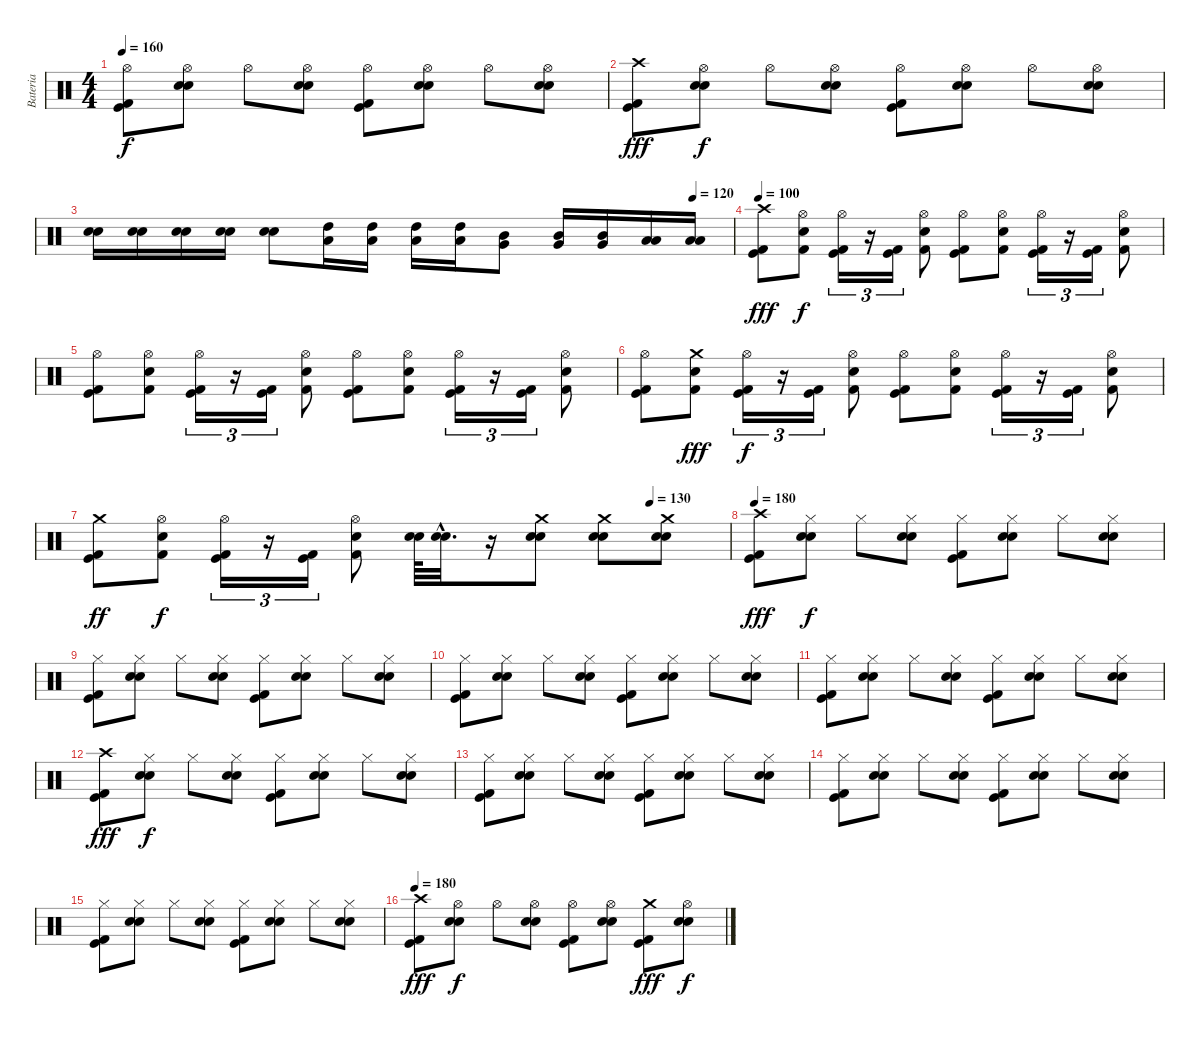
\track ("Bateria" "Bateria") {instrument percussion}
\staff {score}
\articulation defaults
\ts (4 4)
\tempo 160
\clef neutral
\ks c
("Hi-Hat (open)" "Kick (hit) 2" "Kick (hit)").8{dy f} ("Hi-Hat (open)" "Electric Snare (hit)" "Snare (hit) 2").8 "Hi-Hat (open)".8 ("Hi-Hat (open)" "Electric Snare (hit)" "Snare (hit) 2").8 ("Hi-Hat (open)" "Kick (hit) 2" "Kick (hit)").8 ("Hi-Hat (open)" "Electric Snare (hit)" "Snare (hit) 2").8 "Hi-Hat (open)".8 ("Hi-Hat (open)" "Electric Snare (hit)" "Snare (hit) 2").8 |
("Crash high (hit)" "Kick (hit) 2" "Kick (hit)").8{dy fff} ("Hi-Hat (open)" "Electric Snare (hit)" "Snare (hit) 2").8{dy f} "Hi-Hat (open)".8 ("Hi-Hat (open)" "Electric Snare (hit)" "Snare (hit) 2").8 ("Hi-Hat (open)" "Kick (hit) 2" "Kick (hit)").8 ("Hi-Hat (open)" "Electric Snare (hit)" "Snare (hit) 2").8 "Hi-Hat (open)".8 ("Hi-Hat (open)" "Electric Snare (hit)" "Snare (hit) 2").8 |
\tempo (120 0.9375)
("Electric Snare (hit)" "Snare (hit) 2").16 ("Electric Snare (hit)" "Snare (hit) 2").16 ("Electric Snare (hit)" "Snare (hit) 2").16 ("Electric Snare (hit)" "Snare (hit) 2").16 ("Electric Snare (hit)" "Snare (hit) 2").8 ("High Tom (hit)" "Low Tom (hit)").16 ("High Tom (hit)" "Low Tom (hit)").16 ("High Tom (hit)" "Low Tom (hit)").16 ("High Tom (hit)" "Low Tom (hit)").16 ("Mid Tom (hit)" "Very Low Tom (hit)").8 ("Mid Tom (hit)" "Very Low Tom (hit)").16 ("Mid Tom (hit)" "Very Low Tom (hit)").16 ("Low Tom (hit)" "Low Floor Tom (hit)").16 ("Low Tom (hit)" "Low Floor Tom (hit)").16 |
\tempo 100
("Crash high (hit)" "Kick (hit) 2" "Kick (hit)").8{dy fff} ("Hi-Hat (open)" "Electric Snare (hit)" "Kick (hit) 2").8{dy f} ("Hi-Hat (open)" "Kick (hit) 2" "Kick (hit)").16{tu (3 2)} r.16{tu (3 2)} ("Kick (hit) 2" "Kick (hit)").16{tu (3 2)} ("Hi-Hat (open)" "Electric Snare (hit)" "Kick (hit) 2").8 ("Hi-Hat (open)" "Kick (hit) 2" "Kick (hit)").8 ("Hi-Hat (open)" "Electric Snare (hit)" "Kick (hit) 2").8 ("Hi-Hat (open)" "Kick (hit) 2" "Kick (hit)").16{tu (3 2)} r.16{tu (3 2)} ("Kick (hit) 2" "Kick (hit)").16{tu (3 2)} ("Hi-Hat (open)" "Electric Snare (hit)" "Kick (hit) 2").8 |
("Hi-Hat (open)" "Kick (hit) 2" "Kick (hit)").8 ("Hi-Hat (open)" "Electric Snare (hit)" "Kick (hit) 2").8 ("Hi-Hat (open)" "Kick (hit) 2" "Kick (hit)").16{tu (3 2)} r.16{tu (3 2)} ("Kick (hit) 2" "Kick (hit)").16{tu (3 2)} ("Hi-Hat (open)" "Electric Snare (hit)" "Kick (hit) 2").8 ("Hi-Hat (open)" "Kick (hit) 2" "Kick (hit)").8 ("Hi-Hat (open)" "Electric Snare (hit)" "Kick (hit) 2").8 ("Hi-Hat (open)" "Kick (hit) 2" "Kick (hit)").16{tu (3 2)} r.16{tu (3 2)} ("Kick (hit) 2" "Kick (hit)").16{tu (3 2)} ("Hi-Hat (open)" "Electric Snare (hit)" "Kick (hit) 2").8 |
("Hi-Hat (open)" "Kick (hit) 2" "Kick (hit)").8 ("Crash medium (hit)" "Electric Snare (hit)" "Kick (hit) 2").8{dy fff} ("Hi-Hat (open)" "Kick (hit) 2" "Kick (hit)").16{tu (3 2) dy f} r.16{tu (3 2)} ("Kick (hit) 2" "Kick (hit)").16{tu (3 2)} ("Hi-Hat (open)" "Electric Snare (hit)" "Kick (hit) 2").8 ("Hi-Hat (open)" "Kick (hit) 2" "Kick (hit)").8 ("Hi-Hat (open)" "Electric Snare (hit)" "Kick (hit) 2").8 ("Hi-Hat (open)" "Kick (hit) 2" "Kick (hit)").16{tu (3 2)} r.16{tu (3 2)} ("Kick (hit) 2" "Kick (hit)").16{tu (3 2)} ("Hi-Hat (open)" "Electric Snare (hit)" "Kick (hit) 2").8 |
\tempo (130 0.875)
("Crash medium (hit)" "Kick (hit) 2" "Kick (hit)").8{dy ff} ("Hi-Hat (open)" "Electric Snare (hit)" "Kick (hit) 2").8{dy f} ("Hi-Hat (open)" "Kick (hit) 2" "Kick (hit)").16{tu (3 2)} r.16{tu (3 2)} ("Kick (hit) 2" "Kick (hit)").16{tu (3 2)} ("Hi-Hat (open)" "Electric Snare (hit)" "Kick (hit) 2").8 ("Electric Snare (hit)" "Snare (hit) 2").64 ("Electric Snare (hit)"{hac} "Snare (hit) 2"{hac}).32{d} r.16 ("Crash medium (hit)" "Electric Snare (hit)" "Snare (hit) 2").8 ("Crash medium (hit)" "Electric Snare (hit)" "Snare (hit) 2").8 ("Crash medium (hit)" "Electric Snare (hit)" "Snare (hit) 2").8 |
\tempo 180
("Crash high (hit)" "Kick (hit) 2" "Kick (hit)").8{dy fff} ("Hi-Hat (closed)" "Electric Snare (hit)" "Snare (hit) 2").8{dy f} "Hi-Hat (closed)".8 ("Hi-Hat (closed)" "Electric Snare (hit)" "Snare (hit) 2").8 ("Hi-Hat (closed)" "Kick (hit) 2" "Kick (hit)").8 ("Hi-Hat (closed)" "Electric Snare (hit)" "Snare (hit) 2").8 "Hi-Hat (closed)".8 ("Hi-Hat (closed)" "Electric Snare (hit)" "Snare (hit) 2").8 |
("Hi-Hat (closed)" "Kick (hit) 2" "Kick (hit)").8 ("Hi-Hat (closed)" "Electric Snare (hit)" "Snare (hit) 2").8 "Hi-Hat (closed)".8 ("Hi-Hat (closed)" "Electric Snare (hit)" "Snare (hit) 2").8 ("Hi-Hat (closed)" "Kick (hit) 2" "Kick (hit)").8 ("Hi-Hat (closed)" "Electric Snare (hit)" "Snare (hit) 2").8 "Hi-Hat (closed)".8 ("Hi-Hat (closed)" "Electric Snare (hit)" "Snare (hit) 2").8 |
("Hi-Hat (closed)" "Kick (hit) 2" "Kick (hit)").8 ("Hi-Hat (closed)" "Electric Snare (hit)" "Snare (hit) 2").8 "Hi-Hat (closed)".8 ("Hi-Hat (closed)" "Electric Snare (hit)" "Snare (hit) 2").8 ("Hi-Hat (closed)" "Kick (hit) 2" "Kick (hit)").8 ("Hi-Hat (closed)" "Electric Snare (hit)" "Snare (hit) 2").8 "Hi-Hat (closed)".8 ("Hi-Hat (closed)" "Electric Snare (hit)" "Snare (hit) 2").8 |
("Hi-Hat (closed)" "Kick (hit) 2" "Kick (hit)").8 ("Hi-Hat (closed)" "Electric Snare (hit)" "Snare (hit) 2").8 "Hi-Hat (closed)".8 ("Hi-Hat (closed)" "Electric Snare (hit)" "Snare (hit) 2").8 ("Hi-Hat (closed)" "Kick (hit) 2" "Kick (hit)").8 ("Hi-Hat (closed)" "Electric Snare (hit)" "Snare (hit) 2").8 "Hi-Hat (closed)".8 ("Hi-Hat (closed)" "Electric Snare (hit)" "Snare (hit) 2").8 |
("Crash high (hit)" "Kick (hit) 2" "Kick (hit)").8{dy fff} ("Hi-Hat (closed)" "Electric Snare (hit)" "Snare (hit) 2").8{dy f} "Hi-Hat (closed)".8 ("Hi-Hat (closed)" "Electric Snare (hit)" "Snare (hit) 2").8 ("Hi-Hat (closed)" "Kick (hit) 2" "Kick (hit)").8 ("Hi-Hat (closed)" "Electric Snare (hit)" "Snare (hit) 2").8 "Hi-Hat (closed)".8 ("Hi-Hat (closed)" "Electric Snare (hit)" "Snare (hit) 2").8 |
("Hi-Hat (closed)" "Kick (hit) 2" "Kick (hit)").8 ("Hi-Hat (closed)" "Electric Snare (hit)" "Snare (hit) 2").8 "Hi-Hat (closed)".8 ("Hi-Hat (closed)" "Electric Snare (hit)" "Snare (hit) 2").8 ("Hi-Hat (closed)" "Kick (hit) 2" "Kick (hit)").8 ("Hi-Hat (closed)" "Electric Snare (hit)" "Snare (hit) 2").8 "Hi-Hat (closed)".8 ("Hi-Hat (closed)" "Electric Snare (hit)" "Snare (hit) 2").8 |
("Hi-Hat (closed)" "Kick (hit) 2" "Kick (hit)").8 ("Hi-Hat (closed)" "Electric Snare (hit)" "Snare (hit) 2").8 "Hi-Hat (closed)".8 ("Hi-Hat (closed)" "Electric Snare (hit)" "Snare (hit) 2").8 ("Hi-Hat (closed)" "Kick (hit) 2" "Kick (hit)").8 ("Hi-Hat (closed)" "Electric Snare (hit)" "Snare (hit) 2").8 "Hi-Hat (closed)".8 ("Hi-Hat (closed)" "Electric Snare (hit)" "Snare (hit) 2").8 |
("Hi-Hat (closed)" "Kick (hit) 2" "Kick (hit)").8 ("Hi-Hat (closed)" "Electric Snare (hit)" "Snare (hit) 2").8 "Hi-Hat (closed)".8 ("Hi-Hat (closed)" "Electric Snare (hit)" "Snare (hit) 2").8 ("Hi-Hat (closed)" "Kick (hit) 2" "Kick (hit)").8 ("Hi-Hat (closed)" "Electric Snare (hit)" "Snare (hit) 2").8 "Hi-Hat (closed)".8 ("Hi-Hat (closed)" "Electric Snare (hit)" "Snare (hit) 2").8 |
\tempo 180
("Crash high (hit)" "Kick (hit) 2" "Kick (hit)").8{dy fff} ("Hi-Hat (open)" "Electric Snare (hit)" "Snare (hit) 2").8{dy f} "Hi-Hat (open)".8 ("Hi-Hat (open)" "Electric Snare (hit)" "Snare (hit) 2").8 ("Hi-Hat (open)" "Kick (hit) 2" "Kick (hit)").8 ("Hi-Hat (open)" "Electric Snare (hit)" "Snare (hit) 2").8 ("Crash medium (hit)" "Kick (hit) 2" "Kick (hit)").8{dy fff} ("Hi-Hat (open)" "Electric Snare (hit)" "Snare (hit) 2").8{dy f}
